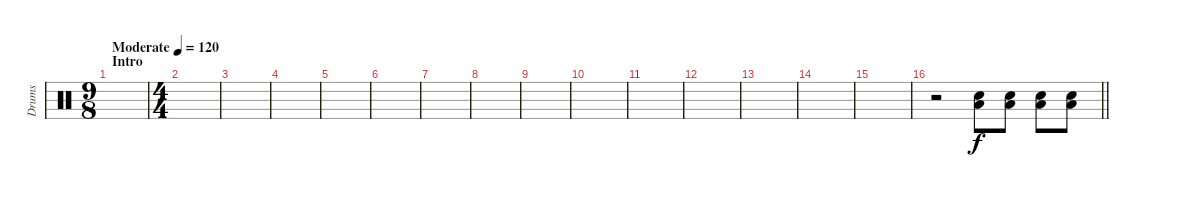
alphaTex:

\track ("Drums" "Drums") {instrument percussion}
\staff {score}
\articulation defaults
\ts (9 8)
\section ("" "Intro")
\tempo (120 "Moderate")
\clef neutral
\ks c
|
\ts (4 4)
|
|
|
|
|
|
|
|
|
|
|
|
|
|
\barLineRight lightlight
r.2 ("Snare (hit) 2" "Low Tom (hit)").8 ("Snare (hit) 2" "Low Tom (hit)").8 ("Snare (hit) 2" "Low Tom (hit)").8 ("Snare (hit) 2" "Low Tom (hit)").8
